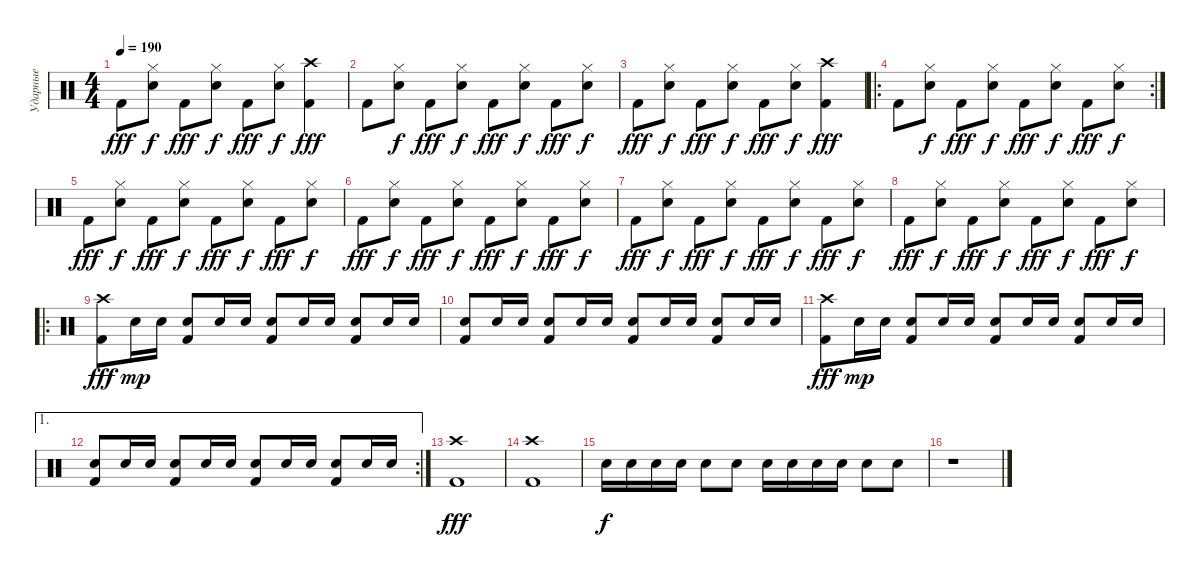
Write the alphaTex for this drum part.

\track ("Ударные" "Ударные") {instrument percussion}
\staff
\articulation defaults
\ts (4 4)
\tempo 190
\clef neutral
\ks c "Kick (hit) 2".8{dy fff}
("Snare (hit) 2" "Hi-Hat (closed)").8{dy f} "Kick (hit) 2".8{dy fff} ("Snare (hit) 2" "Hi-Hat (closed)").8{dy f} "Kick (hit) 2".8{dy fff} ("Snare (hit) 2" "Hi-Hat (closed)").8{dy f} ("Kick (hit) 2" "Crash high (hit)").4{dy fff} |
"Kick (hit) 2".8 ("Snare (hit) 2" "Hi-Hat (closed)").8{dy f} "Kick (hit) 2".8{dy fff} ("Snare (hit) 2" "Hi-Hat (closed)").8{dy f} "Kick (hit) 2".8{dy fff} ("Snare (hit) 2" "Hi-Hat (closed)").8{dy f} "Kick (hit) 2".8{dy fff} ("Snare (hit) 2" "Hi-Hat (closed)").8{dy f} |
"Kick (hit) 2".8{dy fff} ("Snare (hit) 2" "Hi-Hat (closed)").8{dy f} "Kick (hit) 2".8{dy fff} ("Snare (hit) 2" "Hi-Hat (closed)").8{dy f} "Kick (hit) 2".8{dy fff} ("Snare (hit) 2" "Hi-Hat (closed)").8{dy f} ("Kick (hit) 2" "Crash high (hit)").4{dy fff} |
\ro
\rc 2 "Kick (hit) 2".8
("Snare (hit) 2" "Hi-Hat (closed)").8{dy f} "Kick (hit) 2".8{dy fff} ("Snare (hit) 2" "Hi-Hat (closed)").8{dy f} "Kick (hit) 2".8{dy fff} ("Snare (hit) 2" "Hi-Hat (closed)").8{dy f} "Kick (hit) 2".8{dy fff} ("Snare (hit) 2" "Hi-Hat (closed)").8{dy f} |
"Kick (hit) 2".8{dy fff} ("Snare (hit) 2" "Hi-Hat (closed)").8{dy f} "Kick (hit) 2".8{dy fff} ("Snare (hit) 2" "Hi-Hat (closed)").8{dy f} "Kick (hit) 2".8{dy fff} ("Snare (hit) 2" "Hi-Hat (closed)").8{dy f} "Kick (hit) 2".8{dy fff} ("Snare (hit) 2" "Hi-Hat (closed)").8{dy f} |
"Kick (hit) 2".8{dy fff} ("Snare (hit) 2" "Hi-Hat (closed)").8{dy f} "Kick (hit) 2".8{dy fff} ("Snare (hit) 2" "Hi-Hat (closed)").8{dy f} "Kick (hit) 2".8{dy fff} ("Snare (hit) 2" "Hi-Hat (closed)").8{dy f} "Kick (hit) 2".8{dy fff} ("Snare (hit) 2" "Hi-Hat (closed)").8{dy f} |
"Kick (hit) 2".8{dy fff} ("Snare (hit) 2" "Hi-Hat (closed)").8{dy f} "Kick (hit) 2".8{dy fff} ("Snare (hit) 2" "Hi-Hat (closed)").8{dy f} "Kick (hit) 2".8{dy fff} ("Snare (hit) 2" "Hi-Hat (closed)").8{dy f} "Kick (hit) 2".8{dy fff} ("Snare (hit) 2" "Hi-Hat (closed)").8{dy f} |
"Kick (hit) 2".8{dy fff} ("Snare (hit) 2" "Hi-Hat (closed)").8{dy f} "Kick (hit) 2".8{dy fff} ("Snare (hit) 2" "Hi-Hat (closed)").8{dy f} "Kick (hit) 2".8{dy fff} ("Snare (hit) 2" "Hi-Hat (closed)").8{dy f} "Kick (hit) 2".8{dy fff} ("Snare (hit) 2" "Hi-Hat (closed)").8{dy f} |
\ro
("Kick (hit) 2" "Crash high (hit)").8{dy fff} "Snare (hit) 2".16{dy mp} "Snare (hit) 2".16 ("Kick (hit) 2" "Snare (hit) 2").8 "Snare (hit) 2".16 "Snare (hit) 2".16 ("Kick (hit) 2" "Snare (hit) 2").8 "Snare (hit) 2".16 "Snare (hit) 2".16 ("Kick (hit) 2" "Snare (hit) 2").8 "Snare (hit) 2".16 "Snare (hit) 2".16 |
("Kick (hit) 2" "Snare (hit) 2").8 "Snare (hit) 2".16 "Snare (hit) 2".16 ("Kick (hit) 2" "Snare (hit) 2").8 "Snare (hit) 2".16 "Snare (hit) 2".16 ("Kick (hit) 2" "Snare (hit) 2").8 "Snare (hit) 2".16 "Snare (hit) 2".16 ("Kick (hit) 2" "Snare (hit) 2").8 "Snare (hit) 2".16 "Snare (hit) 2".16 |
("Kick (hit) 2" "Crash high (hit)").8{dy fff} "Snare (hit) 2".16{dy mp} "Snare (hit) 2".16 ("Kick (hit) 2" "Snare (hit) 2").8 "Snare (hit) 2".16 "Snare (hit) 2".16 ("Kick (hit) 2" "Snare (hit) 2").8 "Snare (hit) 2".16 "Snare (hit) 2".16 ("Kick (hit) 2" "Snare (hit) 2").8 "Snare (hit) 2".16 "Snare (hit) 2".16 |
\ae 1
\rc 2
("Kick (hit) 2" "Snare (hit) 2").8 "Snare (hit) 2".16 "Snare (hit) 2".16 ("Kick (hit) 2" "Snare (hit) 2").8 "Snare (hit) 2".16 "Snare (hit) 2".16 ("Kick (hit) 2" "Snare (hit) 2").8 "Snare (hit) 2".16 "Snare (hit) 2".16 ("Kick (hit) 2" "Snare (hit) 2").8 "Snare (hit) 2".16 "Snare (hit) 2".16 |
("Kick (hit) 2" "Crash high (hit)").1{dy fff} |
("Kick (hit) 2" "Crash high (hit)").1 |
"Snare (hit) 2".16{dy f} "Electric Snare (hit)".16 "Electric Snare (hit)".16 "Electric Snare (hit)".16 "Electric Snare (hit)".8 "Snare (hit) 2".8 "Snare (hit) 2".16 "Electric Snare (hit)".16 "Electric Snare (hit)".16 "Electric Snare (hit)".16 "Electric Snare (hit)".8 "Snare (hit) 2".8 |
r.1
